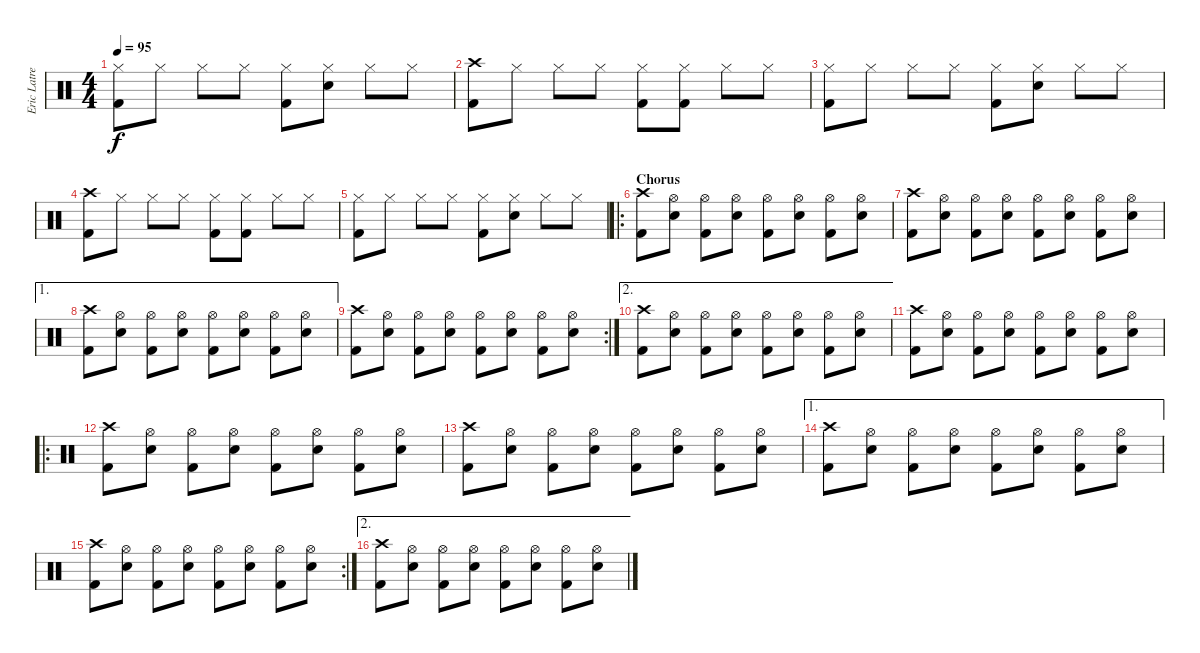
\track ("Eric Latreille" "Eric Latre") {instrument percussion}
\staff {score}
\articulation defaults
\ts (4 4)
\tempo 95
\clef neutral
\ks c
("Hi-Hat (closed)" "Kick (hit) 2").8{dy f} "Hi-Hat (closed)".8 "Hi-Hat (closed)".8 "Hi-Hat (closed)".8 ("Hi-Hat (closed)" "Kick (hit) 2").8 ("Hi-Hat (closed)" "Snare (hit) 2").8 "Hi-Hat (closed)".8 "Hi-Hat (closed)".8 |
("Crash high (hit)" "Kick (hit) 2").8 "Hi-Hat (closed)".8 "Hi-Hat (closed)".8 "Hi-Hat (closed)".8 ("Hi-Hat (closed)" "Kick (hit) 2").8 ("Hi-Hat (closed)" "Kick (hit) 2").8 "Hi-Hat (closed)".8 "Hi-Hat (closed)".8 |
("Hi-Hat (closed)" "Kick (hit) 2").8 "Hi-Hat (closed)".8 "Hi-Hat (closed)".8 "Hi-Hat (closed)".8 ("Hi-Hat (closed)" "Kick (hit) 2").8 ("Hi-Hat (closed)" "Snare (hit) 2").8 "Hi-Hat (closed)".8 "Hi-Hat (closed)".8 |
("Crash high (hit)" "Kick (hit) 2").8 "Hi-Hat (closed)".8 "Hi-Hat (closed)".8 "Hi-Hat (closed)".8 ("Hi-Hat (closed)" "Kick (hit) 2").8 ("Hi-Hat (closed)" "Kick (hit) 2").8 "Hi-Hat (closed)".8 "Hi-Hat (closed)".8 |
("Hi-Hat (closed)" "Kick (hit) 2").8 "Hi-Hat (closed)".8 "Hi-Hat (closed)".8 "Hi-Hat (closed)".8 ("Hi-Hat (closed)" "Kick (hit) 2").8 ("Hi-Hat (closed)" "Snare (hit) 2").8 "Hi-Hat (closed)".8 "Hi-Hat (closed)".8 |
\ro
\section ("" "Chorus")
("Crash high (hit)" "Kick (hit) 2").8 ("Hi-Hat (open)" "Snare (hit) 2").8 ("Hi-Hat (open)" "Kick (hit) 2").8 ("Hi-Hat (open)" "Snare (hit) 2").8 ("Hi-Hat (open)" "Kick (hit) 2").8 ("Hi-Hat (open)" "Snare (hit) 2").8 ("Hi-Hat (open)" "Kick (hit) 2").8 ("Hi-Hat (open)" "Snare (hit) 2").8 |
("Crash high (hit)" "Kick (hit) 2").8 ("Hi-Hat (open)" "Snare (hit) 2").8 ("Hi-Hat (open)" "Kick (hit) 2").8 ("Hi-Hat (open)" "Snare (hit) 2").8 ("Hi-Hat (open)" "Kick (hit) 2").8 ("Hi-Hat (open)" "Snare (hit) 2").8 ("Hi-Hat (open)" "Kick (hit) 2").8 ("Hi-Hat (open)" "Snare (hit) 2").8 |
\ae 1
("Crash high (hit)" "Kick (hit) 2").8 ("Hi-Hat (open)" "Snare (hit) 2").8 ("Hi-Hat (open)" "Kick (hit) 2").8 ("Hi-Hat (open)" "Snare (hit) 2").8 ("Hi-Hat (open)" "Kick (hit) 2").8 ("Hi-Hat (open)" "Snare (hit) 2").8 ("Hi-Hat (open)" "Kick (hit) 2").8 ("Hi-Hat (open)" "Snare (hit) 2").8 |
\rc 2
("Crash high (hit)" "Kick (hit) 2").8 ("Hi-Hat (open)" "Snare (hit) 2").8 ("Hi-Hat (open)" "Kick (hit) 2").8 ("Hi-Hat (open)" "Snare (hit) 2").8 ("Hi-Hat (open)" "Kick (hit) 2").8 ("Hi-Hat (open)" "Snare (hit) 2").8 ("Hi-Hat (open)" "Kick (hit) 2").8 ("Hi-Hat (open)" "Snare (hit) 2").8 |
\ae 2
("Crash high (hit)" "Kick (hit) 2").8 ("Hi-Hat (open)" "Snare (hit) 2").8 ("Hi-Hat (open)" "Kick (hit) 2").8 ("Hi-Hat (open)" "Snare (hit) 2").8 ("Hi-Hat (open)" "Kick (hit) 2").8 ("Hi-Hat (open)" "Snare (hit) 2").8 ("Hi-Hat (open)" "Kick (hit) 2").8 ("Hi-Hat (open)" "Snare (hit) 2").8 |
("Crash high (hit)" "Kick (hit) 2").8 ("Hi-Hat (open)" "Snare (hit) 2").8 ("Hi-Hat (open)" "Kick (hit) 2").8 ("Hi-Hat (open)" "Snare (hit) 2").8 ("Hi-Hat (open)" "Kick (hit) 2").8 ("Hi-Hat (open)" "Snare (hit) 2").8 ("Hi-Hat (open)" "Kick (hit) 2").8 ("Hi-Hat (open)" "Snare (hit) 2").8 |
\ro
("Crash high (hit)" "Kick (hit) 2").8 ("Hi-Hat (open)" "Snare (hit) 2").8 ("Hi-Hat (open)" "Kick (hit) 2").8 ("Hi-Hat (open)" "Snare (hit) 2").8 ("Hi-Hat (open)" "Kick (hit) 2").8 ("Hi-Hat (open)" "Snare (hit) 2").8 ("Hi-Hat (open)" "Kick (hit) 2").8 ("Hi-Hat (open)" "Snare (hit) 2").8 |
("Crash high (hit)" "Kick (hit) 2").8 ("Hi-Hat (open)" "Snare (hit) 2").8 ("Hi-Hat (open)" "Kick (hit) 2").8 ("Hi-Hat (open)" "Snare (hit) 2").8 ("Hi-Hat (open)" "Kick (hit) 2").8 ("Hi-Hat (open)" "Snare (hit) 2").8 ("Hi-Hat (open)" "Kick (hit) 2").8 ("Hi-Hat (open)" "Snare (hit) 2").8 |
\ae 1
("Crash high (hit)" "Kick (hit) 2").8 ("Hi-Hat (open)" "Snare (hit) 2").8 ("Hi-Hat (open)" "Kick (hit) 2").8 ("Hi-Hat (open)" "Snare (hit) 2").8 ("Hi-Hat (open)" "Kick (hit) 2").8 ("Hi-Hat (open)" "Snare (hit) 2").8 ("Hi-Hat (open)" "Kick (hit) 2").8 ("Hi-Hat (open)" "Snare (hit) 2").8 |
\rc 2
("Crash high (hit)" "Kick (hit) 2").8 ("Hi-Hat (open)" "Snare (hit) 2").8 ("Hi-Hat (open)" "Kick (hit) 2").8 ("Hi-Hat (open)" "Snare (hit) 2").8 ("Hi-Hat (open)" "Kick (hit) 2").8 ("Hi-Hat (open)" "Snare (hit) 2").8 ("Hi-Hat (open)" "Kick (hit) 2").8 ("Hi-Hat (open)" "Snare (hit) 2").8 |
\ae 2
("Crash high (hit)" "Kick (hit) 2").8 ("Hi-Hat (open)" "Snare (hit) 2").8 ("Hi-Hat (open)" "Kick (hit) 2").8 ("Hi-Hat (open)" "Snare (hit) 2").8 ("Hi-Hat (open)" "Kick (hit) 2").8 ("Hi-Hat (open)" "Snare (hit) 2").8 ("Hi-Hat (open)" "Kick (hit) 2").8 ("Hi-Hat (open)" "Snare (hit) 2").8
